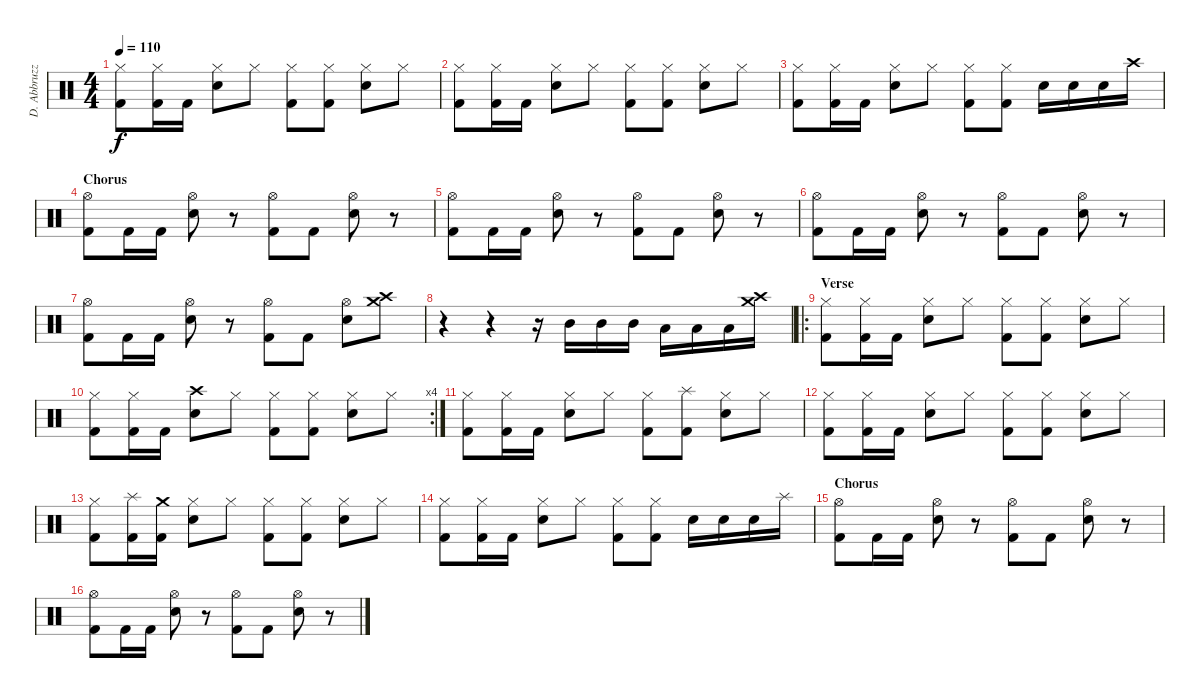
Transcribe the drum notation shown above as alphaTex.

\track ("D. Abbruzzese" "D. Abbruzz") {instrument percussion}
\staff {score}
\articulation defaults
\ts (4 4)
\tempo 110
\clef neutral
\ks c
("Hi-Hat (closed)" "Kick (hit) 2").8{dy f} ("Hi-Hat (closed)" "Kick (hit) 2").16 "Kick (hit) 2".16 ("Hi-Hat (closed)" "Snare (hit) 2").8 "Hi-Hat (closed)".8 ("Hi-Hat (closed)" "Kick (hit) 2").8 ("Hi-Hat (closed)" "Kick (hit) 2").8 ("Hi-Hat (closed)" "Snare (hit) 2").8 "Hi-Hat (closed)".8 |
("Hi-Hat (closed)" "Kick (hit) 2").8 ("Hi-Hat (closed)" "Kick (hit) 2").16 "Kick (hit) 2".16 ("Hi-Hat (closed)" "Snare (hit) 2").8 "Hi-Hat (closed)".8 ("Hi-Hat (closed)" "Kick (hit) 2").8 ("Hi-Hat (closed)" "Kick (hit) 2").8 ("Hi-Hat (closed)" "Snare (hit) 2").8 "Hi-Hat (closed)".8 |
("Hi-Hat (closed)" "Kick (hit) 2").8 ("Hi-Hat (closed)" "Kick (hit) 2").16 "Kick (hit) 2".16 ("Hi-Hat (closed)" "Snare (hit) 2").8 "Hi-Hat (closed)".8 ("Hi-Hat (closed)" "Kick (hit) 2").8 ("Hi-Hat (closed)" "Kick (hit) 2").8 "Snare (hit) 2".16 "Snare (hit) 2".16 "Snare (hit) 2".16 "Crash high (hit)".16 |
\section ("" "Chorus")
("Hi-Hat (open)" "Kick (hit) 2").8 "Kick (hit) 2".16 "Kick (hit) 2".16 ("Hi-Hat (open)" "Snare (hit) 2").8 r.8 ("Hi-Hat (open)" "Kick (hit) 2").8 "Kick (hit) 2".8 ("Hi-Hat (open)" "Snare (hit) 2").8 r.8 |
("Hi-Hat (open)" "Kick (hit) 2").8 "Kick (hit) 2".16 "Kick (hit) 2".16 ("Hi-Hat (open)" "Snare (hit) 2").8 r.8 ("Hi-Hat (open)" "Kick (hit) 2").8 "Kick (hit) 2".8 ("Hi-Hat (open)" "Snare (hit) 2").8 r.8 |
("Hi-Hat (open)" "Kick (hit) 2").8 "Kick (hit) 2".16 "Kick (hit) 2".16 ("Hi-Hat (open)" "Snare (hit) 2").8 r.8 ("Hi-Hat (open)" "Kick (hit) 2").8 "Kick (hit) 2".8 ("Hi-Hat (open)" "Snare (hit) 2").8 r.8 |
("Hi-Hat (open)" "Kick (hit) 2").8 "Kick (hit) 2".16 "Kick (hit) 2".16 ("Hi-Hat (open)" "Snare (hit) 2").8 r.8 ("Hi-Hat (open)" "Kick (hit) 2").8 "Kick (hit) 2".8 ("Hi-Hat (open)" "Snare (hit) 2").8 ("Crash high (hit)" "Crash medium (hit)").8 |
r.4 r.4 r.16 "Mid Tom (hit)".16 "Mid Tom (hit)".16 "Mid Tom (hit)".16 "Low Tom (hit)".16 "Low Tom (hit)".16 "Low Tom (hit)".16 ("Crash high (hit)" "Crash medium (hit)").16 |
\ro
\section ("" "Verse")
("Hi-Hat (closed)" "Kick (hit) 2").8 ("Hi-Hat (closed)" "Kick (hit) 2").16 "Kick (hit) 2".16 ("Hi-Hat (closed)" "Snare (hit) 2").8 "Hi-Hat (closed)".8 ("Hi-Hat (closed)" "Kick (hit) 2").8 ("Hi-Hat (closed)" "Kick (hit) 2").8 ("Hi-Hat (closed)" "Snare (hit) 2").8 "Hi-Hat (closed)".8 |
\rc 4
("Hi-Hat (closed)" "Kick (hit) 2").8 ("Hi-Hat (closed)" "Kick (hit) 2").16 "Kick (hit) 2".16 ("Crash high (hit)" "Snare (hit) 2").8 "Hi-Hat (closed)".8 ("Hi-Hat (closed)" "Kick (hit) 2").8 ("Hi-Hat (closed)" "Kick (hit) 2").8 ("Hi-Hat (closed)" "Snare (hit) 2").8 "Hi-Hat (closed)".8 |
("Hi-Hat (closed)" "Kick (hit) 2").8 ("Hi-Hat (closed)" "Kick (hit) 2").16 "Kick (hit) 2".16 ("Hi-Hat (closed)" "Snare (hit) 2").8 "Hi-Hat (closed)".8 ("Hi-Hat (closed)" "Kick (hit) 2").8 ("Splash (hit)" "Kick (hit) 2").8 ("Hi-Hat (closed)" "Snare (hit) 2").8 "Hi-Hat (closed)".8 |
("Hi-Hat (closed)" "Kick (hit) 2").8 ("Hi-Hat (closed)" "Kick (hit) 2").16 "Kick (hit) 2".16 ("Hi-Hat (closed)" "Snare (hit) 2").8 "Hi-Hat (closed)".8 ("Hi-Hat (closed)" "Kick (hit) 2").8 ("Hi-Hat (closed)" "Kick (hit) 2").8 ("Hi-Hat (closed)" "Snare (hit) 2").8 "Hi-Hat (closed)".8 |
("Hi-Hat (closed)" "Kick (hit) 2").8 ("Splash (hit)" "Kick (hit) 2").16 ("Crash medium (hit)" "Kick (hit) 2").16 ("Hi-Hat (closed)" "Snare (hit) 2").8 "Hi-Hat (closed)".8 ("Hi-Hat (closed)" "Kick (hit) 2").8 ("Hi-Hat (closed)" "Kick (hit) 2").8 ("Hi-Hat (closed)" "Snare (hit) 2").8 "Hi-Hat (closed)".8 |
("Hi-Hat (closed)" "Kick (hit) 2").8 ("Hi-Hat (closed)" "Kick (hit) 2").16 "Kick (hit) 2".16 ("Hi-Hat (closed)" "Snare (hit) 2").8 "Hi-Hat (closed)".8 ("Hi-Hat (closed)" "Kick (hit) 2").8 ("Hi-Hat (closed)" "Kick (hit) 2").8 "Snare (hit) 2".16 "Snare (hit) 2".16 "Snare (hit) 2".16 "Splash (hit)".16 |
\section ("" "Chorus")
("Hi-Hat (open)" "Kick (hit) 2").8 "Kick (hit) 2".16 "Kick (hit) 2".16 ("Hi-Hat (open)" "Snare (hit) 2").8 r.8 ("Hi-Hat (open)" "Kick (hit) 2").8 "Kick (hit) 2".8 ("Hi-Hat (open)" "Snare (hit) 2").8 r.8 |
("Hi-Hat (open)" "Kick (hit) 2").8 "Kick (hit) 2".16 "Kick (hit) 2".16 ("Hi-Hat (open)" "Snare (hit) 2").8 r.8 ("Hi-Hat (open)" "Kick (hit) 2").8 "Kick (hit) 2".8 ("Hi-Hat (open)" "Snare (hit) 2").8 r.8
